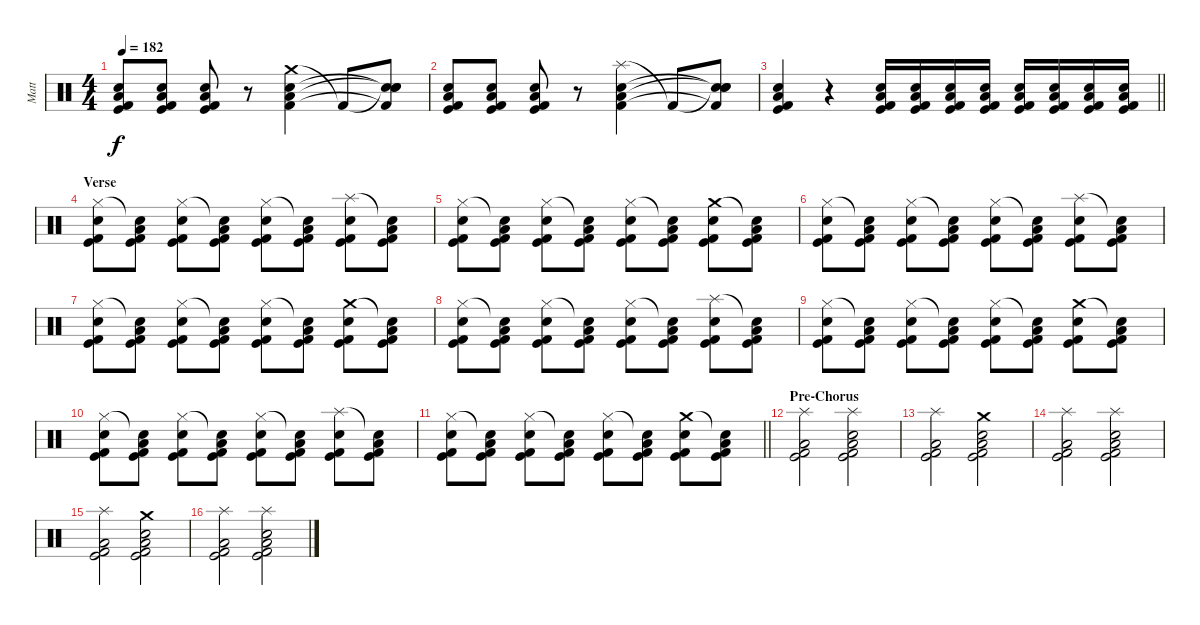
\track ("Matt" "Matt") {instrument percussion}
\staff {score}
\articulation defaults
\ts (4 4)
\tempo 182
\clef neutral
\ks c
("Electric Snare (hit)" "Low Floor Tom (hit)" "Kick (hit)" "Kick (hit) 2").8{dy f} ("Electric Snare (hit)" "Low Floor Tom (hit)" "Kick (hit)" "Kick (hit) 2").8 ("Electric Snare (hit)" "Low Floor Tom (hit)" "Kick (hit)" "Kick (hit) 2").8 r.8 ("Crash medium (hit)" "Electric Snare (hit)" "Low Floor Tom (hit)" "Kick (hit) 2").4 "Kick (hit) 2"{t}.8 ("Snare (hit)"{t} "Snare (hit)"{t} "Snare (hit)"{t} "Kick (hit) 2"{t}).8 |
("Electric Snare (hit)" "Low Floor Tom (hit)" "Kick (hit)" "Kick (hit) 2").8 ("Electric Snare (hit)" "Low Floor Tom (hit)" "Kick (hit)" "Kick (hit) 2").8 ("Electric Snare (hit)" "Low Floor Tom (hit)" "Kick (hit)" "Kick (hit) 2").8 r.8 ("Splash (hit)" "Electric Snare (hit)" "Low Floor Tom (hit)" "Kick (hit) 2").4 "Kick (hit) 2"{t}.8 ("Snare (hit)"{t} "Snare (hit)"{t} "Snare (hit)"{t} "Kick (hit) 2"{t}).8 |
\barLineRight lightlight
("Electric Snare (hit)" "Low Floor Tom (hit)" "Kick (hit)" "Kick (hit) 2").4 r.4 ("Electric Snare (hit)" "Low Floor Tom (hit)" "Kick (hit)" "Kick (hit) 2").16 ("Electric Snare (hit)" "Low Floor Tom (hit)" "Kick (hit)" "Kick (hit) 2").16 ("Electric Snare (hit)" "Low Floor Tom (hit)" "Kick (hit)" "Kick (hit) 2").16 ("Electric Snare (hit)" "Low Floor Tom (hit)" "Kick (hit)" "Kick (hit) 2").16 ("Electric Snare (hit)" "Low Floor Tom (hit)" "Kick (hit)" "Kick (hit) 2").16 ("Electric Snare (hit)" "Low Floor Tom (hit)" "Kick (hit)" "Kick (hit) 2").16 ("Electric Snare (hit)" "Low Floor Tom (hit)" "Kick (hit)" "Kick (hit) 2").16 ("Electric Snare (hit)" "Low Floor Tom (hit)" "Kick (hit)" "Kick (hit) 2").16 |
\section ("" "Verse")
("Hi-Hat (closed)" "Electric Snare (hit)" "Kick (hit)" "Kick (hit) 2").8 ("Snare (hit)"{t} "Low Floor Tom (hit)" "Kick (hit)" "Kick (hit) 2").8 ("Hi-Hat (closed)" "Electric Snare (hit)" "Kick (hit)" "Kick (hit) 2").8 ("Snare (hit)"{t} "Low Floor Tom (hit)" "Kick (hit)" "Kick (hit) 2").8 ("Hi-Hat (closed)" "Electric Snare (hit)" "Kick (hit)" "Kick (hit) 2").8 ("Snare (hit)"{t} "Low Floor Tom (hit)" "Kick (hit)" "Kick (hit) 2").8 ("Splash (hit)" "Electric Snare (hit)" "Kick (hit)" "Kick (hit) 2").8 ("Snare (hit)"{t} "Low Floor Tom (hit)" "Kick (hit)" "Kick (hit) 2").8 |
("Hi-Hat (closed)" "Electric Snare (hit)" "Kick (hit)" "Kick (hit) 2").8 ("Snare (hit)"{t} "Low Floor Tom (hit)" "Kick (hit)" "Kick (hit) 2").8 ("Hi-Hat (closed)" "Electric Snare (hit)" "Kick (hit)" "Kick (hit) 2").8 ("Snare (hit)"{t} "Low Floor Tom (hit)" "Kick (hit)" "Kick (hit) 2").8 ("Hi-Hat (closed)" "Electric Snare (hit)" "Kick (hit)" "Kick (hit) 2").8 ("Snare (hit)"{t} "Low Floor Tom (hit)" "Kick (hit)" "Kick (hit) 2").8 ("Crash medium (hit)" "Electric Snare (hit)" "Kick (hit)" "Kick (hit) 2").8 ("Snare (hit)"{t} "Low Floor Tom (hit)" "Kick (hit)" "Kick (hit) 2").8 |
("Hi-Hat (closed)" "Electric Snare (hit)" "Kick (hit)" "Kick (hit) 2").8 ("Snare (hit)"{t} "Low Floor Tom (hit)" "Kick (hit)" "Kick (hit) 2").8 ("Hi-Hat (closed)" "Electric Snare (hit)" "Kick (hit)" "Kick (hit) 2").8 ("Snare (hit)"{t} "Low Floor Tom (hit)" "Kick (hit)" "Kick (hit) 2").8 ("Hi-Hat (closed)" "Electric Snare (hit)" "Kick (hit)" "Kick (hit) 2").8 ("Snare (hit)"{t} "Low Floor Tom (hit)" "Kick (hit)" "Kick (hit) 2").8 ("Splash (hit)" "Electric Snare (hit)" "Kick (hit)" "Kick (hit) 2").8 ("Snare (hit)"{t} "Low Floor Tom (hit)" "Kick (hit)" "Kick (hit) 2").8 |
("Hi-Hat (closed)" "Electric Snare (hit)" "Kick (hit)" "Kick (hit) 2").8 ("Snare (hit)"{t} "Low Floor Tom (hit)" "Kick (hit)" "Kick (hit) 2").8 ("Hi-Hat (closed)" "Electric Snare (hit)" "Kick (hit)" "Kick (hit) 2").8 ("Snare (hit)"{t} "Low Floor Tom (hit)" "Kick (hit)" "Kick (hit) 2").8 ("Hi-Hat (closed)" "Electric Snare (hit)" "Kick (hit)" "Kick (hit) 2").8 ("Snare (hit)"{t} "Low Floor Tom (hit)" "Kick (hit)" "Kick (hit) 2").8 ("Crash medium (hit)" "Electric Snare (hit)" "Kick (hit)" "Kick (hit) 2").8 ("Snare (hit)"{t} "Low Floor Tom (hit)" "Kick (hit)" "Kick (hit) 2").8 |
("Hi-Hat (closed)" "Electric Snare (hit)" "Kick (hit)" "Kick (hit) 2").8 ("Snare (hit)"{t} "Low Floor Tom (hit)" "Kick (hit)" "Kick (hit) 2").8 ("Hi-Hat (closed)" "Electric Snare (hit)" "Kick (hit)" "Kick (hit) 2").8 ("Snare (hit)"{t} "Low Floor Tom (hit)" "Kick (hit)" "Kick (hit) 2").8 ("Hi-Hat (closed)" "Electric Snare (hit)" "Kick (hit)" "Kick (hit) 2").8 ("Snare (hit)"{t} "Low Floor Tom (hit)" "Kick (hit)" "Kick (hit) 2").8 ("Splash (hit)" "Electric Snare (hit)" "Kick (hit)" "Kick (hit) 2").8 ("Snare (hit)"{t} "Low Floor Tom (hit)" "Kick (hit)" "Kick (hit) 2").8 |
("Hi-Hat (closed)" "Electric Snare (hit)" "Kick (hit)" "Kick (hit) 2").8 ("Snare (hit)"{t} "Low Floor Tom (hit)" "Kick (hit)" "Kick (hit) 2").8 ("Hi-Hat (closed)" "Electric Snare (hit)" "Kick (hit)" "Kick (hit) 2").8 ("Snare (hit)"{t} "Low Floor Tom (hit)" "Kick (hit)" "Kick (hit) 2").8 ("Hi-Hat (closed)" "Electric Snare (hit)" "Kick (hit)" "Kick (hit) 2").8 ("Snare (hit)"{t} "Low Floor Tom (hit)" "Kick (hit)" "Kick (hit) 2").8 ("Crash medium (hit)" "Electric Snare (hit)" "Kick (hit)" "Kick (hit) 2").8 ("Snare (hit)"{t} "Low Floor Tom (hit)" "Kick (hit)" "Kick (hit) 2").8 |
("Hi-Hat (closed)" "Electric Snare (hit)" "Kick (hit)" "Kick (hit) 2").8 ("Snare (hit)"{t} "Low Floor Tom (hit)" "Kick (hit)" "Kick (hit) 2").8 ("Hi-Hat (closed)" "Electric Snare (hit)" "Kick (hit)" "Kick (hit) 2").8 ("Snare (hit)"{t} "Low Floor Tom (hit)" "Kick (hit)" "Kick (hit) 2").8 ("Hi-Hat (closed)" "Electric Snare (hit)" "Kick (hit)" "Kick (hit) 2").8 ("Snare (hit)"{t} "Low Floor Tom (hit)" "Kick (hit)" "Kick (hit) 2").8 ("Splash (hit)" "Electric Snare (hit)" "Kick (hit)" "Kick (hit) 2").8 ("Snare (hit)"{t} "Low Floor Tom (hit)" "Kick (hit)" "Kick (hit) 2").8 |
\barLineRight lightlight
("Hi-Hat (closed)" "Electric Snare (hit)" "Kick (hit)" "Kick (hit) 2").8 ("Snare (hit)"{t} "Low Floor Tom (hit)" "Kick (hit)" "Kick (hit) 2").8 ("Hi-Hat (closed)" "Electric Snare (hit)" "Kick (hit)" "Kick (hit) 2").8 ("Snare (hit)"{t} "Low Floor Tom (hit)" "Kick (hit)" "Kick (hit) 2").8 ("Hi-Hat (closed)" "Electric Snare (hit)" "Kick (hit)" "Kick (hit) 2").8 ("Snare (hit)"{t} "Low Floor Tom (hit)" "Kick (hit)" "Kick (hit) 2").8 ("Crash medium (hit)" "Electric Snare (hit)" "Kick (hit)" "Kick (hit) 2").8 ("Snare (hit)"{t} "Low Floor Tom (hit)" "Kick (hit)" "Kick (hit) 2").8 |
\section ("" "Pre-Chorus")
("Splash (hit)" "Low Floor Tom (hit)" "Kick (hit)" "Kick (hit) 2").2 ("Splash (hit)" "Electric Snare (hit)" "Low Floor Tom (hit)" "Kick (hit)" "Kick (hit) 2").2 |
("Splash (hit)" "Low Floor Tom (hit)" "Kick (hit)" "Kick (hit) 2").2 ("Crash medium (hit)" "Electric Snare (hit)" "Low Floor Tom (hit)" "Kick (hit)" "Kick (hit) 2").2 |
("Splash (hit)" "Low Floor Tom (hit)" "Kick (hit)" "Kick (hit) 2").2 ("Splash (hit)" "Electric Snare (hit)" "Low Floor Tom (hit)" "Kick (hit)" "Kick (hit) 2").2 |
("Splash (hit)" "Low Floor Tom (hit)" "Kick (hit)" "Kick (hit) 2").2 ("Crash medium (hit)" "Electric Snare (hit)" "Low Floor Tom (hit)" "Kick (hit)" "Kick (hit) 2").2 |
("Splash (hit)" "Low Floor Tom (hit)" "Kick (hit)" "Kick (hit) 2").2 ("Splash (hit)" "Electric Snare (hit)" "Low Floor Tom (hit)" "Kick (hit)" "Kick (hit) 2").2
